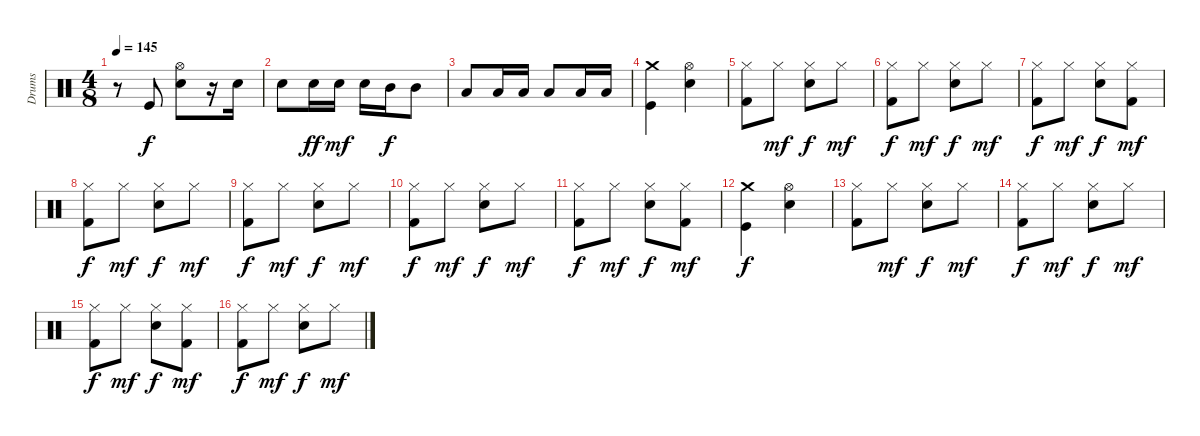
\track ("Drums" "Drums") {instrument percussion}
\staff {score}
\articulation defaults
\ts (4 8)
\tempo 145
\clef neutral
\ks c
r.8{dy f} "Kick (hit)".8 ("Hi-Hat (open)" "Snare (hit) 2").8 r.16 "Snare (hit) 2".16 |
"Snare (hit) 2".8 "Snare (hit) 2".16{dy ff} "Snare (hit) 2".16{dy mf} "Snare (hit) 2".16 "Mid Tom (hit)".16{dy f} "Mid Tom (hit)".8 |
"Low Tom (hit)".8 "Low Tom (hit)".16 "Low Tom (hit)".16 "Low Tom (hit)".8 "Low Floor Tom (hit)".16 "Low Floor Tom (hit)".16 |
("Crash medium (hit)" "Kick (hit)").4 ("Hi-Hat (open)" "Snare (hit) 2").4 |
("Hi-Hat (closed)" "Kick (hit) 2").8 "Hi-Hat (closed)".8{dy mf} ("Hi-Hat (closed)" "Snare (hit) 2").8{dy f} "Hi-Hat (closed)".8{dy mf} |
("Hi-Hat (closed)" "Kick (hit) 2").8{dy f} "Hi-Hat (closed)".8{dy mf} ("Hi-Hat (closed)" "Snare (hit) 2").8{dy f} "Hi-Hat (closed)".8{dy mf} |
("Hi-Hat (closed)" "Kick (hit) 2").8{dy f} "Hi-Hat (closed)".8{dy mf} ("Hi-Hat (closed)" "Snare (hit) 2").8{dy f} ("Hi-Hat (closed)" "Kick (hit) 2").8{dy mf} |
("Hi-Hat (closed)" "Kick (hit) 2").8{dy f} "Hi-Hat (closed)".8{dy mf} ("Hi-Hat (closed)" "Snare (hit) 2").8{dy f} "Hi-Hat (closed)".8{dy mf} |
("Hi-Hat (closed)" "Kick (hit) 2").8{dy f} "Hi-Hat (closed)".8{dy mf} ("Hi-Hat (closed)" "Snare (hit) 2").8{dy f} "Hi-Hat (closed)".8{dy mf} |
("Hi-Hat (closed)" "Kick (hit) 2").8{dy f} "Hi-Hat (closed)".8{dy mf} ("Hi-Hat (closed)" "Snare (hit) 2").8{dy f} "Hi-Hat (closed)".8{dy mf} |
("Hi-Hat (closed)" "Kick (hit) 2").8{dy f} "Hi-Hat (closed)".8{dy mf} ("Hi-Hat (closed)" "Snare (hit) 2").8{dy f} ("Hi-Hat (closed)" "Kick (hit) 2").8{dy mf} |
("Crash medium (hit)" "Kick (hit)").4{dy f} ("Hi-Hat (open)" "Snare (hit) 2").4 |
("Hi-Hat (closed)" "Kick (hit) 2").8 "Hi-Hat (closed)".8{dy mf} ("Hi-Hat (closed)" "Snare (hit) 2").8{dy f} "Hi-Hat (closed)".8{dy mf} |
("Hi-Hat (closed)" "Kick (hit) 2").8{dy f} "Hi-Hat (closed)".8{dy mf} ("Hi-Hat (closed)" "Snare (hit) 2").8{dy f} "Hi-Hat (closed)".8{dy mf} |
("Hi-Hat (closed)" "Kick (hit) 2").8{dy f} "Hi-Hat (closed)".8{dy mf} ("Hi-Hat (closed)" "Snare (hit) 2").8{dy f} ("Hi-Hat (closed)" "Kick (hit) 2").8{dy mf} |
("Hi-Hat (closed)" "Kick (hit) 2").8{dy f} "Hi-Hat (closed)".8{dy mf} ("Hi-Hat (closed)" "Snare (hit) 2").8{dy f} "Hi-Hat (closed)".8{dy mf}
